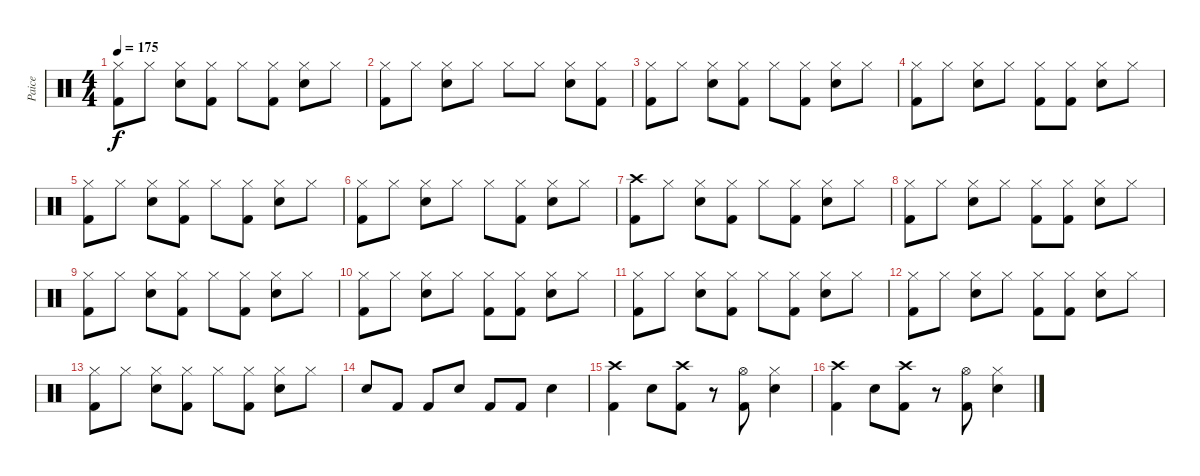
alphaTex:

\track ("Paice" "Paice") {instrument percussion}
\staff {score}
\articulation defaults
\ts (4 4)
\tempo 175
\clef neutral
\ks c
("Hi-Hat (closed)" "Kick (hit) 2").8{dy f} "Hi-Hat (closed)".8 ("Hi-Hat (closed)" "Electric Snare (hit)").8 ("Hi-Hat (closed)" "Kick (hit) 2").8 "Hi-Hat (closed)".8 ("Hi-Hat (closed)" "Kick (hit) 2").8 ("Hi-Hat (closed)" "Electric Snare (hit)").8 "Hi-Hat (closed)".8 |
("Hi-Hat (closed)" "Kick (hit) 2").8 "Hi-Hat (closed)".8 ("Hi-Hat (closed)" "Electric Snare (hit)").8 "Hi-Hat (closed)".8 "Hi-Hat (closed)".8 "Hi-Hat (closed)".8 ("Hi-Hat (closed)" "Electric Snare (hit)").8 ("Hi-Hat (closed)" "Kick (hit) 2").8 |
("Hi-Hat (closed)" "Kick (hit) 2").8 "Hi-Hat (closed)".8 ("Hi-Hat (closed)" "Electric Snare (hit)").8 ("Hi-Hat (closed)" "Kick (hit) 2").8 "Hi-Hat (closed)".8 ("Hi-Hat (closed)" "Kick (hit) 2").8 ("Hi-Hat (closed)" "Electric Snare (hit)").8 "Hi-Hat (closed)".8 |
("Hi-Hat (closed)" "Kick (hit) 2").8 "Hi-Hat (closed)".8 ("Hi-Hat (closed)" "Electric Snare (hit)").8 "Hi-Hat (closed)".8 ("Hi-Hat (closed)" "Kick (hit) 2").8 ("Hi-Hat (closed)" "Kick (hit) 2").8 ("Hi-Hat (closed)" "Electric Snare (hit)").8 "Hi-Hat (closed)".8 |
("Hi-Hat (closed)" "Kick (hit) 2").8 "Hi-Hat (closed)".8 ("Hi-Hat (closed)" "Electric Snare (hit)").8 ("Hi-Hat (closed)" "Kick (hit) 2").8 "Hi-Hat (closed)".8 ("Hi-Hat (closed)" "Kick (hit) 2").8 ("Hi-Hat (closed)" "Electric Snare (hit)").8 "Hi-Hat (closed)".8 |
("Hi-Hat (closed)" "Kick (hit) 2").8 "Hi-Hat (closed)".8 ("Hi-Hat (closed)" "Electric Snare (hit)").8 "Hi-Hat (closed)".8 "Hi-Hat (closed)".8 ("Hi-Hat (closed)" "Kick (hit) 2").8 ("Hi-Hat (closed)" "Electric Snare (hit)").8 "Hi-Hat (closed)".8 |
("Crash high (hit)" "Kick (hit) 2").8 "Hi-Hat (closed)".8 ("Hi-Hat (closed)" "Electric Snare (hit)").8 ("Hi-Hat (closed)" "Kick (hit) 2").8 "Hi-Hat (closed)".8 ("Hi-Hat (closed)" "Kick (hit) 2").8 ("Hi-Hat (closed)" "Electric Snare (hit)").8 "Hi-Hat (closed)".8 |
("Hi-Hat (closed)" "Kick (hit) 2").8 "Hi-Hat (closed)".8 ("Hi-Hat (closed)" "Electric Snare (hit)").8 "Hi-Hat (closed)".8 ("Hi-Hat (closed)" "Kick (hit) 2").8 ("Hi-Hat (closed)" "Kick (hit) 2").8 ("Hi-Hat (closed)" "Electric Snare (hit)").8 "Hi-Hat (closed)".8 |
("Hi-Hat (closed)" "Kick (hit) 2").8 "Hi-Hat (closed)".8 ("Hi-Hat (closed)" "Electric Snare (hit)").8 ("Hi-Hat (closed)" "Kick (hit) 2").8 "Hi-Hat (closed)".8 ("Hi-Hat (closed)" "Kick (hit) 2").8 ("Hi-Hat (closed)" "Electric Snare (hit)").8 "Hi-Hat (closed)".8 |
("Hi-Hat (closed)" "Kick (hit) 2").8 "Hi-Hat (closed)".8 ("Hi-Hat (closed)" "Electric Snare (hit)").8 "Hi-Hat (closed)".8 ("Hi-Hat (closed)" "Kick (hit) 2").8 ("Hi-Hat (closed)" "Kick (hit) 2").8 ("Hi-Hat (closed)" "Electric Snare (hit)").8 "Hi-Hat (closed)".8 |
("Hi-Hat (closed)" "Kick (hit) 2").8 "Hi-Hat (closed)".8 ("Hi-Hat (closed)" "Electric Snare (hit)").8 ("Hi-Hat (closed)" "Kick (hit) 2").8 "Hi-Hat (closed)".8 ("Hi-Hat (closed)" "Kick (hit) 2").8 ("Hi-Hat (closed)" "Electric Snare (hit)").8 "Hi-Hat (closed)".8 |
("Hi-Hat (closed)" "Kick (hit) 2").8 "Hi-Hat (closed)".8 ("Hi-Hat (closed)" "Electric Snare (hit)").8 "Hi-Hat (closed)".8 ("Hi-Hat (closed)" "Kick (hit) 2").8 ("Hi-Hat (closed)" "Kick (hit) 2").8 ("Hi-Hat (closed)" "Electric Snare (hit)").8 "Hi-Hat (closed)".8 |
("Hi-Hat (closed)" "Kick (hit) 2").8 "Hi-Hat (closed)".8 ("Hi-Hat (closed)" "Electric Snare (hit)").8 ("Hi-Hat (closed)" "Kick (hit) 2").8 "Hi-Hat (closed)".8 ("Hi-Hat (closed)" "Kick (hit) 2").8 ("Hi-Hat (closed)" "Electric Snare (hit)").8 "Hi-Hat (closed)".8 |
"Electric Snare (hit)".8 "Kick (hit) 2".8 "Kick (hit) 2".8 "Electric Snare (hit)".8 "Kick (hit) 2".8 "Kick (hit) 2".8 "Electric Snare (hit)".4 |
("Crash high (hit)" "Kick (hit) 2").4 "Electric Snare (hit)".8 ("Crash high (hit)" "Kick (hit) 2").8 r.8 ("Hi-Hat (open)" "Kick (hit) 2").8 ("Hi-Hat (closed)" "Electric Snare (hit)").4 |
("Crash high (hit)" "Kick (hit) 2").4 "Electric Snare (hit)".8 ("Crash high (hit)" "Kick (hit) 2").8 r.8 ("Hi-Hat (open)" "Kick (hit) 2").8 ("Hi-Hat (closed)" "Electric Snare (hit)").4
